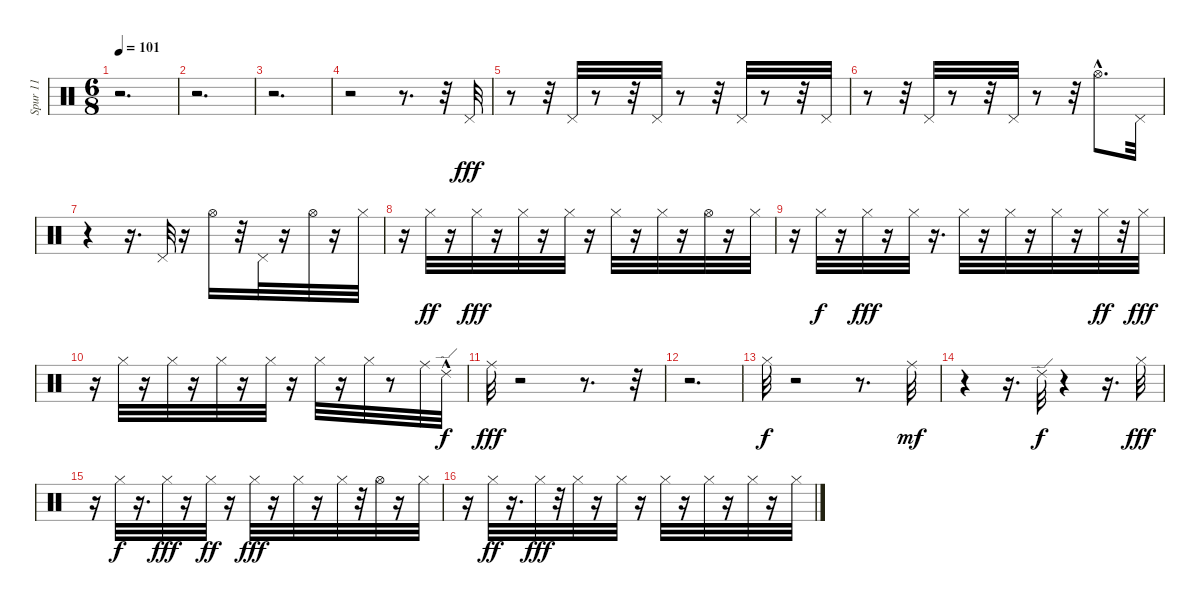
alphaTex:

\track ("Spur 11" "Spur 11") {instrument percussion}
\staff {score}
\articulation defaults
\ts (6 8)
\tempo 101
\clef neutral
\ks c
r.2{d dy ff} |
r.2{d} |
r.2{d} |
r.2 r.8{d} r.32 "Pedal Hi-Hat (hit)".32{dy fff} |
r.8 r.32 "Pedal Hi-Hat (hit)".32 r.8 r.32 "Pedal Hi-Hat (hit)".32 r.8 r.32 "Pedal Hi-Hat (hit)".32 r.8 r.32 "Pedal Hi-Hat (hit)".32 |
r.8 r.32 "Pedal Hi-Hat (hit)".32 r.8 r.32 "Pedal Hi-Hat (hit)".32 r.8 r.32 "Hi-Hat (open)"{hac}.8{d} "Pedal Hi-Hat (hit)".32 |
r.4 r.16{d} "Pedal Hi-Hat (hit)".32 r.16 "Hi-Hat (open)".16 r.32 "Pedal Hi-Hat (hit)".32 r.16 "Hi-Hat (open)".32 r.16 "Hi-Hat (closed)".32 |
r.16 "Hi-Hat (closed)".32{dy ff} r.16 "Hi-Hat (closed)".32{dy fff} r.16 "Hi-Hat (closed)".32 r.16 "Hi-Hat (closed)".32 r.16 "Hi-Hat (closed)".32 r.16 "Hi-Hat (closed)".32 r.16 "Hi-Hat (open)".32 r.16 "Hi-Hat (closed)".32 |
r.16 "Hi-Hat (closed)".32{dy f} r.16 "Hi-Hat (closed)".32{dy fff} r.16 "Hi-Hat (closed)".32 r.16{d} "Hi-Hat (closed)".32 r.16 "Hi-Hat (closed)".32 r.16 "Hi-Hat (closed)".32 r.16 "Hi-Hat (closed)".32{dy ff} r.32 "Hi-Hat (closed)".32{dy fff} |
r.16 "Hi-Hat (closed)".32 r.16 "Hi-Hat (closed)".32 r.16 "Hi-Hat (closed)".32 r.16 "Hi-Hat (closed)".32 r.16 "Hi-Hat (closed)".32 r.16 "Hi-Hat (closed)".32 r.8 "Ride (middle)".32 "Ride (edge) 2"{hac}.32{dy f} |
"Ride (middle)".32{dy fff} r.2 r.8{d} r.32 |
r.2{d} |
"Hi-Hat (closed)".32{dy f} r.2 r.8{d} "Ride (middle)".32{dy mf} |
r.4 r.16{d} "Ride (edge) 2".32{dy f} r.4 r.16{d} "Hi-Hat (closed)".32{dy fff} |
r.16 "Hi-Hat (closed)".32{dy f} r.16{d} "Hi-Hat (closed)".32{dy fff} r.16 "Hi-Hat (closed)".32{dy ff} r.16 "Hi-Hat (closed)".32{dy fff} r.16 "Hi-Hat (closed)".32 r.16 "Hi-Hat (closed)".32 r.32 "Hi-Hat (open)".32 r.16 "Hi-Hat (closed)".32 |
r.16 "Hi-Hat (closed)".32{dy ff} r.16{d} "Hi-Hat (closed)".32{dy fff} r.32 "Hi-Hat (closed)".32 r.16 "Hi-Hat (closed)".32 r.16 "Hi-Hat (closed)".32 r.16 "Hi-Hat (closed)".32 r.16 "Hi-Hat (closed)".32 r.16 "Hi-Hat (closed)".32
